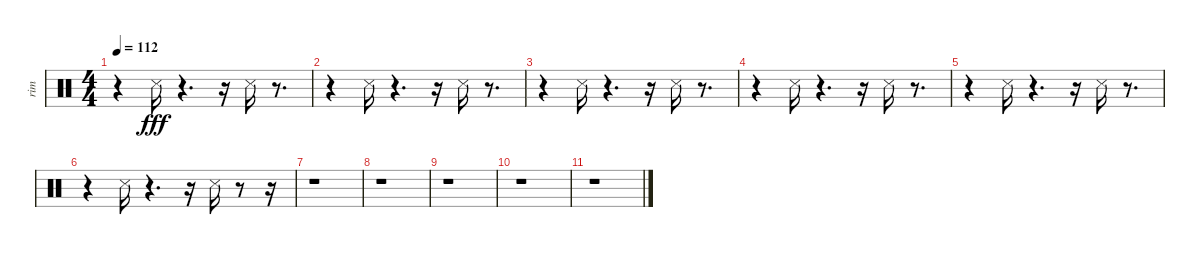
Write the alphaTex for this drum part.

\track ("rim" "rim") {instrument percussion}
\staff {score}
\articulation defaults
\ts (4 4)
\tempo 112
\clef neutral
\ks c
r.4{dy fff} "Snare (side stick) 3".16 r.4{d} r.16 "Snare (side stick) 3".16 r.8{d} |
r.4 "Snare (side stick) 3".16 r.4{d} r.16 "Snare (side stick) 3".16 r.8{d} |
r.4 "Snare (side stick) 3".16 r.4{d} r.16 "Snare (side stick) 3".16 r.8{d} |
r.4 "Snare (side stick) 3".16 r.4{d} r.16 "Snare (side stick) 3".16 r.8{d} |
r.4 "Snare (side stick) 3".16 r.4{d} r.16 "Snare (side stick) 3".16 r.8{d} |
r.4 "Snare (side stick) 3".16 r.4{d} r.16 "Snare (side stick) 3".16 r.8 r.16 |
r.1 |
r.1 |
r.1 |
r.1 |
r.1
